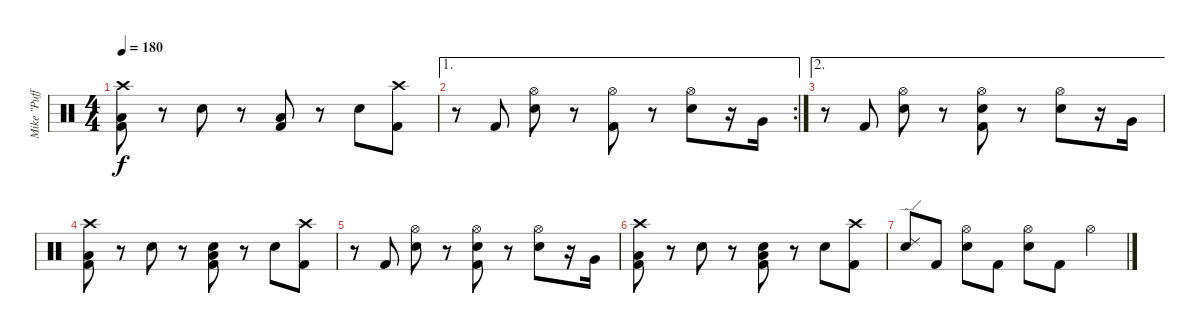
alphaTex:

\track ("Mike \"Puffy\" Bordin" "Mike \"Puff") {instrument percussion}
\staff {score}
\articulation defaults
\ts (4 4)
\tempo 180
\clef neutral
\ks c
("Crash high (hit)" "Low Floor Tom (hit)" "Kick (hit) 2").8{dy f} r.8 "Electric Snare (hit)".8 r.8 ("Low Floor Tom (hit)" "Kick (hit) 2").8 r.8 "Electric Snare (hit)".8 ("Crash high (hit)" "Kick (hit) 2").8 |
\ae 1
\rc 2
r.8 "Kick (hit) 2".8 ("Hi-Hat (open)" "Electric Snare (hit)").8 r.8 ("Hi-Hat (open)" "Kick (hit) 2").8 r.8 ("Hi-Hat (open)" "Electric Snare (hit)").8 r.16 "Very Low Tom (hit)".16 |
\ae 2
r.8 "Kick (hit) 2".8 ("Hi-Hat (open)" "Electric Snare (hit)").8 r.8 ("Hi-Hat (open)" "Electric Snare (hit)" "Kick (hit) 2").8 r.8 ("Hi-Hat (open)" "Electric Snare (hit)").8 r.16 "Very Low Tom (hit)".16 |
("Crash high (hit)" "Low Floor Tom (hit)" "Kick (hit) 2").8 r.8 "Electric Snare (hit)".8 r.8 ("Electric Snare (hit)" "Low Floor Tom (hit)" "Kick (hit) 2").8 r.8 "Electric Snare (hit)".8 ("Crash high (hit)" "Kick (hit) 2").8 |
r.8 "Kick (hit) 2".8 ("Hi-Hat (open)" "Electric Snare (hit)").8 r.8 ("Hi-Hat (open)" "Electric Snare (hit)" "Kick (hit) 2").8 r.8 ("Hi-Hat (open)" "Electric Snare (hit)").8 r.16 "Very Low Tom (hit)".16 |
("Crash high (hit)" "Low Floor Tom (hit)" "Kick (hit) 2").8 r.8 "Electric Snare (hit)".8 r.8 ("Electric Snare (hit)" "Low Floor Tom (hit)" "Kick (hit) 2").8 r.8 "Electric Snare (hit)".8 ("Crash high (hit)" "Kick (hit) 2").8 |
("Ride (edge) 2" "Electric Snare (hit)").8 "Kick (hit) 2".8 ("Hi-Hat (open)" "Electric Snare (hit)").8 "Kick (hit) 2".8 ("Hi-Hat (open)" "Electric Snare (hit)").8 "Kick (hit) 2".8 "Hi-Hat (open)".4
